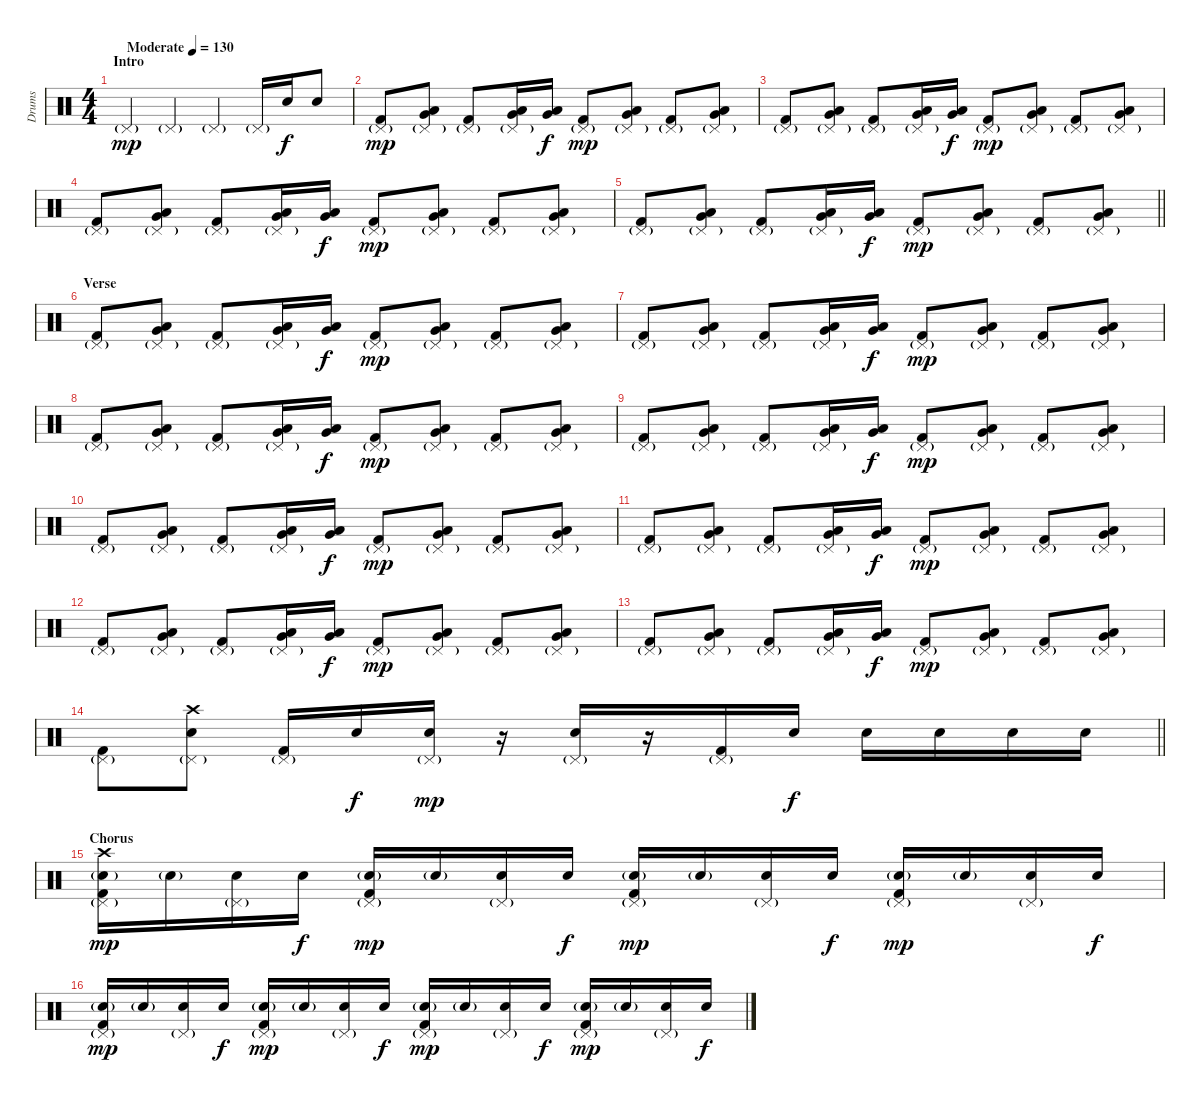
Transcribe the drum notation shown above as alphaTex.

\track ("Drums" "Drums") {instrument percussion}
\staff {score}
\articulation defaults
\ts (4 4)
\section ("" "Intro")
\tempo (130 "Moderate")
\clef neutral
\ks c "Pedal Hi-Hat (hit)"{g}.4{dy mp} "Pedal Hi-Hat (hit)"{g}.4 "Pedal Hi-Hat (hit)"{g}.4 "Pedal Hi-Hat (hit)"{g}.16 "Electric Snare (hit)".16{dy f} "Electric Snare (hit)".8
|
("Pedal Hi-Hat (hit)"{g} "Kick (hit) 2").8{dy mp} ("Pedal Hi-Hat (hit)"{g} "Low Tom (hit)" "Very Low Tom (hit)").8 ("Pedal Hi-Hat (hit)"{g} "Kick (hit) 2").8 ("Pedal Hi-Hat (hit)"{g} "Very Low Tom (hit)" "Low Floor Tom (hit)").16 ("Very Low Tom (hit)" "Low Floor Tom (hit)").16{dy f} ("Pedal Hi-Hat (hit)"{g} "Kick (hit) 2").8{dy mp} ("Pedal Hi-Hat (hit)"{g} "Very Low Tom (hit)" "Low Floor Tom (hit)").8 ("Pedal Hi-Hat (hit)"{g} "Kick (hit) 2").8 ("Pedal Hi-Hat (hit)"{g} "Very Low Tom (hit)" "Low Floor Tom (hit)").8 |
("Pedal Hi-Hat (hit)"{g} "Kick (hit) 2").8 ("Pedal Hi-Hat (hit)"{g} "Low Tom (hit)" "Very Low Tom (hit)").8 ("Pedal Hi-Hat (hit)"{g} "Kick (hit) 2").8 ("Pedal Hi-Hat (hit)"{g} "Very Low Tom (hit)" "Low Floor Tom (hit)").16 ("Very Low Tom (hit)" "Low Floor Tom (hit)").16{dy f} ("Pedal Hi-Hat (hit)"{g} "Kick (hit) 2").8{dy mp} ("Pedal Hi-Hat (hit)"{g} "Very Low Tom (hit)" "Low Floor Tom (hit)").8 ("Pedal Hi-Hat (hit)"{g} "Kick (hit) 2").8 ("Pedal Hi-Hat (hit)"{g} "Very Low Tom (hit)" "Low Floor Tom (hit)").8 |
("Pedal Hi-Hat (hit)"{g} "Kick (hit) 2").8 ("Pedal Hi-Hat (hit)"{g} "Low Tom (hit)" "Very Low Tom (hit)").8 ("Pedal Hi-Hat (hit)"{g} "Kick (hit) 2").8 ("Pedal Hi-Hat (hit)"{g} "Very Low Tom (hit)" "Low Floor Tom (hit)").16 ("Very Low Tom (hit)" "Low Floor Tom (hit)").16{dy f} ("Pedal Hi-Hat (hit)"{g} "Kick (hit) 2").8{dy mp} ("Pedal Hi-Hat (hit)"{g} "Very Low Tom (hit)" "Low Floor Tom (hit)").8 ("Pedal Hi-Hat (hit)"{g} "Kick (hit) 2").8 ("Pedal Hi-Hat (hit)"{g} "Very Low Tom (hit)" "Low Floor Tom (hit)").8 |
\barLineRight lightlight
("Pedal Hi-Hat (hit)"{g} "Kick (hit) 2").8 ("Pedal Hi-Hat (hit)"{g} "Low Tom (hit)" "Very Low Tom (hit)").8 ("Pedal Hi-Hat (hit)"{g} "Kick (hit) 2").8 ("Pedal Hi-Hat (hit)"{g} "Very Low Tom (hit)" "Low Floor Tom (hit)").16 ("Very Low Tom (hit)" "Low Floor Tom (hit)").16{dy f} ("Pedal Hi-Hat (hit)"{g} "Kick (hit) 2").8{dy mp} ("Pedal Hi-Hat (hit)"{g} "Very Low Tom (hit)" "Low Floor Tom (hit)").8 ("Pedal Hi-Hat (hit)"{g} "Kick (hit) 2").8 ("Pedal Hi-Hat (hit)"{g} "Very Low Tom (hit)" "Low Floor Tom (hit)").8 |
\section ("" "Verse")
("Pedal Hi-Hat (hit)"{g} "Kick (hit) 2").8 ("Pedal Hi-Hat (hit)"{g} "Low Tom (hit)" "Very Low Tom (hit)").8 ("Pedal Hi-Hat (hit)"{g} "Kick (hit) 2").8 ("Pedal Hi-Hat (hit)"{g} "Very Low Tom (hit)" "Low Floor Tom (hit)").16 ("Very Low Tom (hit)" "Low Floor Tom (hit)").16{dy f} ("Pedal Hi-Hat (hit)"{g} "Kick (hit) 2").8{dy mp} ("Pedal Hi-Hat (hit)"{g} "Very Low Tom (hit)" "Low Floor Tom (hit)").8 ("Pedal Hi-Hat (hit)"{g} "Kick (hit) 2").8 ("Pedal Hi-Hat (hit)"{g} "Very Low Tom (hit)" "Low Floor Tom (hit)").8 |
("Pedal Hi-Hat (hit)"{g} "Kick (hit) 2").8 ("Pedal Hi-Hat (hit)"{g} "Low Tom (hit)" "Very Low Tom (hit)").8 ("Pedal Hi-Hat (hit)"{g} "Kick (hit) 2").8 ("Pedal Hi-Hat (hit)"{g} "Very Low Tom (hit)" "Low Floor Tom (hit)").16 ("Very Low Tom (hit)" "Low Floor Tom (hit)").16{dy f} ("Pedal Hi-Hat (hit)"{g} "Kick (hit) 2").8{dy mp} ("Pedal Hi-Hat (hit)"{g} "Very Low Tom (hit)" "Low Floor Tom (hit)").8 ("Pedal Hi-Hat (hit)"{g} "Kick (hit) 2").8 ("Pedal Hi-Hat (hit)"{g} "Very Low Tom (hit)" "Low Floor Tom (hit)").8 |
("Pedal Hi-Hat (hit)"{g} "Kick (hit) 2").8 ("Pedal Hi-Hat (hit)"{g} "Low Tom (hit)" "Very Low Tom (hit)").8 ("Pedal Hi-Hat (hit)"{g} "Kick (hit) 2").8 ("Pedal Hi-Hat (hit)"{g} "Very Low Tom (hit)" "Low Floor Tom (hit)").16 ("Very Low Tom (hit)" "Low Floor Tom (hit)").16{dy f} ("Pedal Hi-Hat (hit)"{g} "Kick (hit) 2").8{dy mp} ("Pedal Hi-Hat (hit)"{g} "Very Low Tom (hit)" "Low Floor Tom (hit)").8 ("Pedal Hi-Hat (hit)"{g} "Kick (hit) 2").8 ("Pedal Hi-Hat (hit)"{g} "Very Low Tom (hit)" "Low Floor Tom (hit)").8 |
("Pedal Hi-Hat (hit)"{g} "Kick (hit) 2").8 ("Pedal Hi-Hat (hit)"{g} "Low Tom (hit)" "Very Low Tom (hit)").8 ("Pedal Hi-Hat (hit)"{g} "Kick (hit) 2").8 ("Pedal Hi-Hat (hit)"{g} "Very Low Tom (hit)" "Low Floor Tom (hit)").16 ("Very Low Tom (hit)" "Low Floor Tom (hit)").16{dy f} ("Pedal Hi-Hat (hit)"{g} "Kick (hit) 2").8{dy mp} ("Pedal Hi-Hat (hit)"{g} "Very Low Tom (hit)" "Low Floor Tom (hit)").8 ("Pedal Hi-Hat (hit)"{g} "Kick (hit) 2").8 ("Pedal Hi-Hat (hit)"{g} "Very Low Tom (hit)" "Low Floor Tom (hit)").8 |
("Pedal Hi-Hat (hit)"{g} "Kick (hit) 2").8 ("Pedal Hi-Hat (hit)"{g} "Low Tom (hit)" "Very Low Tom (hit)").8 ("Pedal Hi-Hat (hit)"{g} "Kick (hit) 2").8 ("Pedal Hi-Hat (hit)"{g} "Very Low Tom (hit)" "Low Floor Tom (hit)").16 ("Very Low Tom (hit)" "Low Floor Tom (hit)").16{dy f} ("Pedal Hi-Hat (hit)"{g} "Kick (hit) 2").8{dy mp} ("Pedal Hi-Hat (hit)"{g} "Very Low Tom (hit)" "Low Floor Tom (hit)").8 ("Pedal Hi-Hat (hit)"{g} "Kick (hit) 2").8 ("Pedal Hi-Hat (hit)"{g} "Very Low Tom (hit)" "Low Floor Tom (hit)").8 |
("Pedal Hi-Hat (hit)"{g} "Kick (hit) 2").8 ("Pedal Hi-Hat (hit)"{g} "Low Tom (hit)" "Very Low Tom (hit)").8 ("Pedal Hi-Hat (hit)"{g} "Kick (hit) 2").8 ("Pedal Hi-Hat (hit)"{g} "Very Low Tom (hit)" "Low Floor Tom (hit)").16 ("Very Low Tom (hit)" "Low Floor Tom (hit)").16{dy f} ("Pedal Hi-Hat (hit)"{g} "Kick (hit) 2").8{dy mp} ("Pedal Hi-Hat (hit)"{g} "Very Low Tom (hit)" "Low Floor Tom (hit)").8 ("Pedal Hi-Hat (hit)"{g} "Kick (hit) 2").8 ("Pedal Hi-Hat (hit)"{g} "Very Low Tom (hit)" "Low Floor Tom (hit)").8 |
("Pedal Hi-Hat (hit)"{g} "Kick (hit) 2").8 ("Pedal Hi-Hat (hit)"{g} "Low Tom (hit)" "Very Low Tom (hit)").8 ("Pedal Hi-Hat (hit)"{g} "Kick (hit) 2").8 ("Pedal Hi-Hat (hit)"{g} "Very Low Tom (hit)" "Low Floor Tom (hit)").16 ("Very Low Tom (hit)" "Low Floor Tom (hit)").16{dy f} ("Pedal Hi-Hat (hit)"{g} "Kick (hit) 2").8{dy mp} ("Pedal Hi-Hat (hit)"{g} "Very Low Tom (hit)" "Low Floor Tom (hit)").8 ("Pedal Hi-Hat (hit)"{g} "Kick (hit) 2").8 ("Pedal Hi-Hat (hit)"{g} "Very Low Tom (hit)" "Low Floor Tom (hit)").8 |
("Pedal Hi-Hat (hit)"{g} "Kick (hit) 2").8 ("Pedal Hi-Hat (hit)"{g} "Low Tom (hit)" "Very Low Tom (hit)").8 ("Pedal Hi-Hat (hit)"{g} "Kick (hit) 2").8 ("Pedal Hi-Hat (hit)"{g} "Very Low Tom (hit)" "Low Floor Tom (hit)").16 ("Very Low Tom (hit)" "Low Floor Tom (hit)").16{dy f} ("Pedal Hi-Hat (hit)"{g} "Kick (hit) 2").8{dy mp} ("Pedal Hi-Hat (hit)"{g} "Very Low Tom (hit)" "Low Floor Tom (hit)").8 ("Pedal Hi-Hat (hit)"{g} "Kick (hit) 2").8 ("Pedal Hi-Hat (hit)"{g} "Very Low Tom (hit)" "Low Floor Tom (hit)").8 |
\barLineRight lightlight
("Pedal Hi-Hat (hit)"{g} "Kick (hit) 2").8 ("Pedal Hi-Hat (hit)"{g} "Crash high (hit)" "Electric Snare (hit)").8 ("Pedal Hi-Hat (hit)"{g} "Kick (hit) 2").16 "Electric Snare (hit)".16{dy f} ("Pedal Hi-Hat (hit)"{g} "Electric Snare (hit)").16{dy mp} r.16 ("Pedal Hi-Hat (hit)"{g} "Electric Snare (hit)").16 r.16 ("Pedal Hi-Hat (hit)"{g} "Kick (hit) 2").16 "Electric Snare (hit)".16{dy f} "Electric Snare (hit)".16 "Electric Snare (hit)".16 "Electric Snare (hit)".16 "Electric Snare (hit)".16 |
\section ("" "Chorus")
("Pedal Hi-Hat (hit)"{g} "Crash high (hit)" "Electric Snare (hit)"{g} "Kick (hit) 2").16{dy mp} "Electric Snare (hit)"{g}.16 ("Pedal Hi-Hat (hit)"{g} "Electric Snare (hit)").16 "Electric Snare (hit)".16{dy f} ("Pedal Hi-Hat (hit)"{g} "Electric Snare (hit)"{g} "Kick (hit) 2").16{dy mp} "Electric Snare (hit)"{g}.16 ("Pedal Hi-Hat (hit)"{g} "Electric Snare (hit)").16 "Electric Snare (hit)".16{dy f} ("Pedal Hi-Hat (hit)"{g} "Electric Snare (hit)"{g} "Kick (hit) 2").16{dy mp} "Electric Snare (hit)"{g}.16 ("Pedal Hi-Hat (hit)"{g} "Electric Snare (hit)").16 "Electric Snare (hit)".16{dy f} ("Pedal Hi-Hat (hit)"{g} "Electric Snare (hit)"{g} "Kick (hit) 2").16{dy mp} "Electric Snare (hit)"{g}.16 ("Pedal Hi-Hat (hit)"{g} "Electric Snare (hit)").16 "Electric Snare (hit)".16{dy f} |
("Pedal Hi-Hat (hit)"{g} "Electric Snare (hit)"{g} "Kick (hit) 2").16{dy mp} "Electric Snare (hit)"{g}.16 ("Pedal Hi-Hat (hit)"{g} "Electric Snare (hit)").16 "Electric Snare (hit)".16{dy f} ("Pedal Hi-Hat (hit)"{g} "Electric Snare (hit)"{g} "Kick (hit) 2").16{dy mp} "Electric Snare (hit)"{g}.16 ("Pedal Hi-Hat (hit)"{g} "Electric Snare (hit)").16 "Electric Snare (hit)".16{dy f} ("Pedal Hi-Hat (hit)"{g} "Electric Snare (hit)"{g} "Kick (hit) 2").16{dy mp} "Electric Snare (hit)"{g}.16 ("Pedal Hi-Hat (hit)"{g} "Electric Snare (hit)").16 "Electric Snare (hit)".16{dy f} ("Pedal Hi-Hat (hit)"{g} "Electric Snare (hit)"{g} "Kick (hit) 2").16{dy mp} "Electric Snare (hit)"{g}.16 ("Pedal Hi-Hat (hit)"{g} "Electric Snare (hit)").16 "Electric Snare (hit)".16{dy f}
